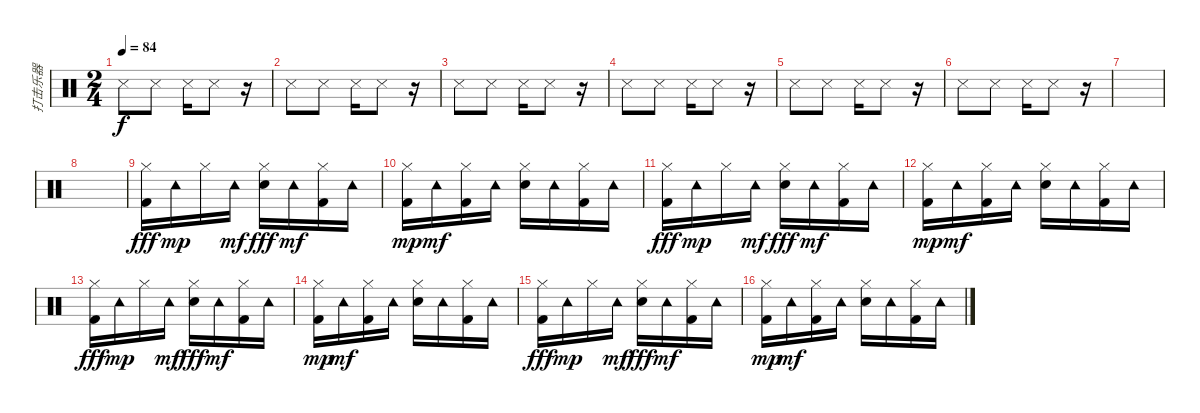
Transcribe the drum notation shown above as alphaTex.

\track ("打击乐器" "打击乐器") {instrument percussion}
\staff {score}
\articulation defaults
\ts (2 4)
\tempo 84
\clef neutral
\ks c "Snare (side stick) 3".8{dy f} "Snare (side stick) 3".8 "Snare (side stick) 3".16 "Snare (side stick) 3".8
r.16 |
"Snare (side stick) 3".8 "Snare (side stick) 3".8 "Snare (side stick) 3".16 "Snare (side stick) 3".8 r.16 |
"Snare (side stick) 3".8 "Snare (side stick) 3".8 "Snare (side stick) 3".16 "Snare (side stick) 3".8 r.16 |
"Snare (side stick) 3".8 "Snare (side stick) 3".8 "Snare (side stick) 3".16 "Snare (side stick) 3".8 r.16 |
"Snare (side stick) 3".8 "Snare (side stick) 3".8 "Snare (side stick) 3".16 "Snare (side stick) 3".8 r.16 |
"Snare (side stick) 3".8 "Snare (side stick) 3".8 "Snare (side stick) 3".16 "Snare (side stick) 3".8 r.16 |
|
|
("Hi-Hat (closed)" "Kick (hit) 2").16{dy fff} "Tambourine (hit)".16{dy mp} "Hi-Hat (closed)".16 "Tambourine (hit)".16{dy mf} ("Hi-Hat (closed)" "Snare (hit) 2").16{dy fff} "Tambourine (hit)".16{dy mf} ("Hi-Hat (closed)" "Kick (hit) 2").16 "Tambourine (hit)".16 |
("Hi-Hat (closed)" "Kick (hit) 2").16{dy mp} "Tambourine (hit)".16{dy mf} ("Hi-Hat (closed)" "Kick (hit) 2").16 "Tambourine (hit)".16 ("Hi-Hat (closed)" "Snare (hit) 2").16 "Tambourine (hit)".16 ("Hi-Hat (closed)" "Kick (hit) 2").16 "Tambourine (hit)".16 |
("Hi-Hat (closed)" "Kick (hit) 2").16{dy fff} "Tambourine (hit)".16{dy mp} "Hi-Hat (closed)".16 "Tambourine (hit)".16{dy mf} ("Hi-Hat (closed)" "Snare (hit) 2").16{dy fff} "Tambourine (hit)".16{dy mf} ("Hi-Hat (closed)" "Kick (hit) 2").16 "Tambourine (hit)".16 |
("Hi-Hat (closed)" "Kick (hit) 2").16{dy mp} "Tambourine (hit)".16{dy mf} ("Hi-Hat (closed)" "Kick (hit) 2").16 "Tambourine (hit)".16 ("Hi-Hat (closed)" "Snare (hit) 2").16 "Tambourine (hit)".16 ("Hi-Hat (closed)" "Kick (hit) 2").16 "Tambourine (hit)".16 |
("Hi-Hat (closed)" "Kick (hit) 2").16{dy fff} "Tambourine (hit)".16{dy mp} "Hi-Hat (closed)".16 "Tambourine (hit)".16{dy mf} ("Hi-Hat (closed)" "Snare (hit) 2").16{dy fff} "Tambourine (hit)".16{dy mf} ("Hi-Hat (closed)" "Kick (hit) 2").16 "Tambourine (hit)".16 |
("Hi-Hat (closed)" "Kick (hit) 2").16{dy mp} "Tambourine (hit)".16{dy mf} ("Hi-Hat (closed)" "Kick (hit) 2").16 "Tambourine (hit)".16 ("Hi-Hat (closed)" "Snare (hit) 2").16 "Tambourine (hit)".16 ("Hi-Hat (closed)" "Kick (hit) 2").16 "Tambourine (hit)".16 |
("Hi-Hat (closed)" "Kick (hit) 2").16{dy fff} "Tambourine (hit)".16{dy mp} "Hi-Hat (closed)".16 "Tambourine (hit)".16{dy mf} ("Hi-Hat (closed)" "Snare (hit) 2").16{dy fff} "Tambourine (hit)".16{dy mf} ("Hi-Hat (closed)" "Kick (hit) 2").16 "Tambourine (hit)".16 |
("Hi-Hat (closed)" "Kick (hit) 2").16{dy mp} "Tambourine (hit)".16{dy mf} ("Hi-Hat (closed)" "Kick (hit) 2").16 "Tambourine (hit)".16 ("Hi-Hat (closed)" "Snare (hit) 2").16 "Tambourine (hit)".16 ("Hi-Hat (closed)" "Kick (hit) 2").16 "Tambourine (hit)".16
